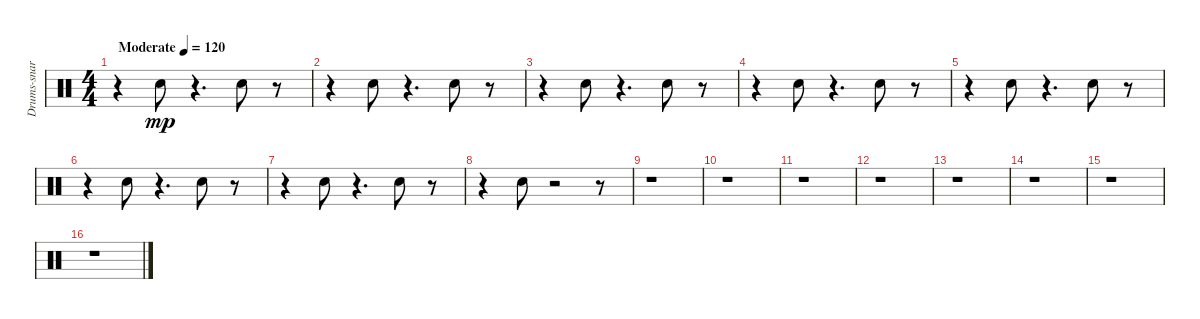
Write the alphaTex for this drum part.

\track ("Drums-snare drum 1" "Drums-snar") {instrument percussion}
\staff {score}
\articulation defaults
\ts (4 4)
\tempo (120 "Moderate")
\clef neutral
\ks c
r.4{dy mp} "Snare (hit) 2".8 r.4{d} "Snare (hit) 2".8 r.8 |
r.4 "Snare (hit) 2".8 r.4{d} "Snare (hit) 2".8 r.8 |
r.4 "Snare (hit) 2".8 r.4{d} "Snare (hit) 2".8 r.8 |
r.4 "Snare (hit) 2".8 r.4{d} "Snare (hit) 2".8 r.8 |
r.4 "Snare (hit) 2".8 r.4{d} "Snare (hit) 2".8 r.8 |
r.4 "Snare (hit) 2".8 r.4{d} "Snare (hit) 2".8 r.8 |
r.4 "Snare (hit) 2".8 r.4{d} "Snare (hit) 2".8 r.8 |
r.4 "Snare (hit) 2".8 r.2 r.8 |
r.1 |
r.1 |
r.1 |
r.1 |
r.1 |
r.1 |
r.1 |
r.1
